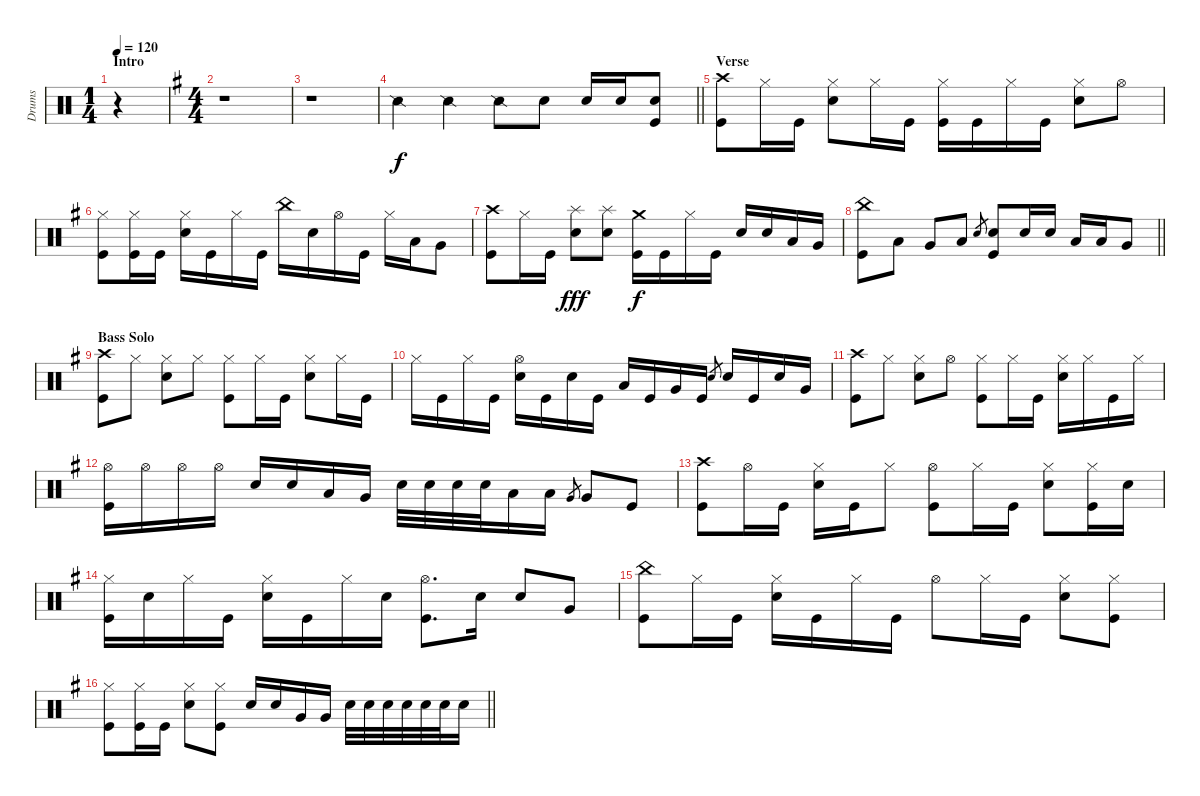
\track ("Drums" "Drums") {instrument percussion}
\staff {score}
\articulation defaults
\ts (1 4)
\section ("" "Intro")
\tempo 120
\clef neutral
\ks c
r.4{dy f} |
\ts (4 4)
\ks g
r.1 |
r.1 |
\barLineRight lightlight
\ks eminor "Snare (side stick) 2".4 "Snare (side stick) 2".4 "Snare (side stick) 2".8 "Snare (hit) 2".8 "Snare (hit) 2".16 "Snare (hit) 2".16
("Snare (hit) 2" "Kick (hit)").8 |
\section ("" "Verse")
("Crash high (hit)" "Kick (hit)").8 "Hi-Hat (closed)".16 "Kick (hit)".16 ("Hi-Hat (closed)" "Snare (hit) 2").8 "Hi-Hat (closed)".16 "Kick (hit)".16 ("Hi-Hat (closed)" "Kick (hit)").16 "Kick (hit)".16 "Hi-Hat (closed)".16 "Kick (hit)".16 ("Hi-Hat (closed)" "Snare (hit) 2").8 "Hi-Hat (open)".8 |
("Hi-Hat (closed)" "Kick (hit)").8 ("Hi-Hat (closed)" "Kick (hit)").16 "Kick (hit)".16 ("Hi-Hat (closed)" "Snare (hit) 2").16 "Kick (hit)".16 "Hi-Hat (closed)".16 "Kick (hit)".16 "China (hit)".16 "Snare (hit) 2".16 "Hi-Hat (open)".16 "Kick (hit)".16 "Hi-Hat (closed)".16 "Low Tom (hit)".16 "Very Low Tom (hit)".8 |
("Crash high (hit)" "Kick (hit)").8 "Hi-Hat (closed)".16 "Kick (hit)".16 ("Splash (hit)" "Snare (hit) 2").8{dy fff} ("Splash (hit)" "Snare (hit) 2").8 ("Crash medium (hit)" "Kick (hit)").16{dy f} "Kick (hit)".16 "Hi-Hat (closed)".16 "Kick (hit)".16 "Snare (hit) 2".16 "Snare (hit) 2".16 "Low Tom (hit)".16 "Very Low Tom (hit)".16 |
\barLineRight lightlight
("China (hit)" "Kick (hit)").8 "Low Tom (hit)".8 "Very Low Tom (hit)".8 "Low Floor Tom (hit)".8 "Snare (hit) 2".8{gr} ("Snare (hit) 2" "Kick (hit)").8 "Snare (hit) 2".16 "Snare (hit) 2".16 "Low Tom (hit)".16 "Low Tom (hit)".16 "Very Low Tom (hit)".8 |
\section ("" "Bass Solo")
("Crash high (hit)" "Kick (hit)").8 "Hi-Hat (closed)".8 ("Hi-Hat (closed)" "Snare (hit) 2").8 "Hi-Hat (closed)".8 ("Hi-Hat (closed)" "Kick (hit)").8 "Hi-Hat (closed)".16 "Kick (hit)".16 ("Hi-Hat (closed)" "Snare (hit) 2").8 "Hi-Hat (closed)".16 "Kick (hit)".16 |
"Hi-Hat (closed)".16 "Kick (hit)".16 "Hi-Hat (closed)".16 "Kick (hit)".16 ("Hi-Hat (open)" "Snare (hit) 2").16 "Kick (hit)".16 "Snare (hit) 2".16 "Kick (hit)".16 "Low Tom (hit)".16 "Kick (hit)".16 "Very Low Tom (hit)".16 "Kick (hit)".16 "Snare (hit) 2".8{gr} "Snare (hit) 2".16 "Kick (hit)".16 "Snare (hit) 2".16 "Very Low Tom (hit)".16 |
("Crash high (hit)" "Kick (hit)").8 "Hi-Hat (closed)".8 ("Hi-Hat (closed)" "Snare (hit) 2").8 "Hi-Hat (open)".8 ("Hi-Hat (closed)" "Kick (hit)").8 "Hi-Hat (closed)".16 "Kick (hit)".16 ("Hi-Hat (closed)" "Snare (hit) 2").16 "Hi-Hat (closed)".16 "Kick (hit)".16 "Hi-Hat (closed)".16 |
("Hi-Hat (open)" "Kick (hit)").16 "Hi-Hat (open)".16 "Hi-Hat (open)".16 "Hi-Hat (open)".16 "Snare (hit) 2".16 "Snare (hit) 2".16 "Low Tom (hit)".16 "Very Low Tom (hit)".16 "Snare (hit) 2".32 "Snare (hit) 2".32 "Snare (hit) 2".32 "Snare (hit) 2".32 "Low Tom (hit)".16 "Low Tom (hit)".16 "Very Low Tom (hit)".8{gr} "Very Low Tom (hit)".8 "Kick (hit)".8 |
("Crash high (hit)" "Kick (hit)").8 "Hi-Hat (open)".16 "Kick (hit)".16 ("Hi-Hat (closed)" "Snare (hit) 2").16 "Kick (hit)".16 "Hi-Hat (closed)".8 ("Hi-Hat (open)" "Kick (hit)").8 "Hi-Hat (closed)".16 "Kick (hit)".16 ("Hi-Hat (closed)" "Snare (hit) 2").8 ("Hi-Hat (closed)" "Kick (hit)").16 "Snare (hit) 2".16 |
("Hi-Hat (closed)" "Kick (hit)").16 "Snare (hit) 2".16 "Hi-Hat (closed)".16 "Kick (hit)".16 ("Hi-Hat (closed)" "Snare (hit) 2").16 "Kick (hit)".16 "Hi-Hat (closed)".16 "Snare (hit) 2".16 ("Hi-Hat (open)" "Kick (hit)").8{d} "Snare (hit) 2".16 "Snare (hit) 2".8 "Very Low Tom (hit)".8 |
("China (hit)" "Kick (hit)").8 "Hi-Hat (closed)".16 "Kick (hit)".16 ("Hi-Hat (closed)" "Snare (hit) 2").16 "Kick (hit)".16 "Hi-Hat (closed)".16 "Kick (hit)".16 "Hi-Hat (open)".8 "Hi-Hat (closed)".16 "Kick (hit)".16 ("Hi-Hat (closed)" "Snare (hit) 2").8 ("Hi-Hat (closed)" "Kick (hit)").8 |
\barLineRight lightlight
("Hi-Hat (closed)" "Kick (hit)").8 ("Hi-Hat (closed)" "Kick (hit)").16 "Kick (hit)".16 ("Hi-Hat (closed)" "Snare (hit) 2").8 ("Hi-Hat (closed)" "Kick (hit)").8 "Snare (hit) 2".16 "Snare (hit) 2".16 "Very Low Tom (hit)".16 "Very Low Tom (hit)".16 "Snare (hit) 2".32 "Snare (hit) 2".32 "Snare (hit) 2".32 "Snare (hit) 2".32 "Snare (hit) 2".32 "Snare (hit) 2".32 "Snare (hit) 2".16
